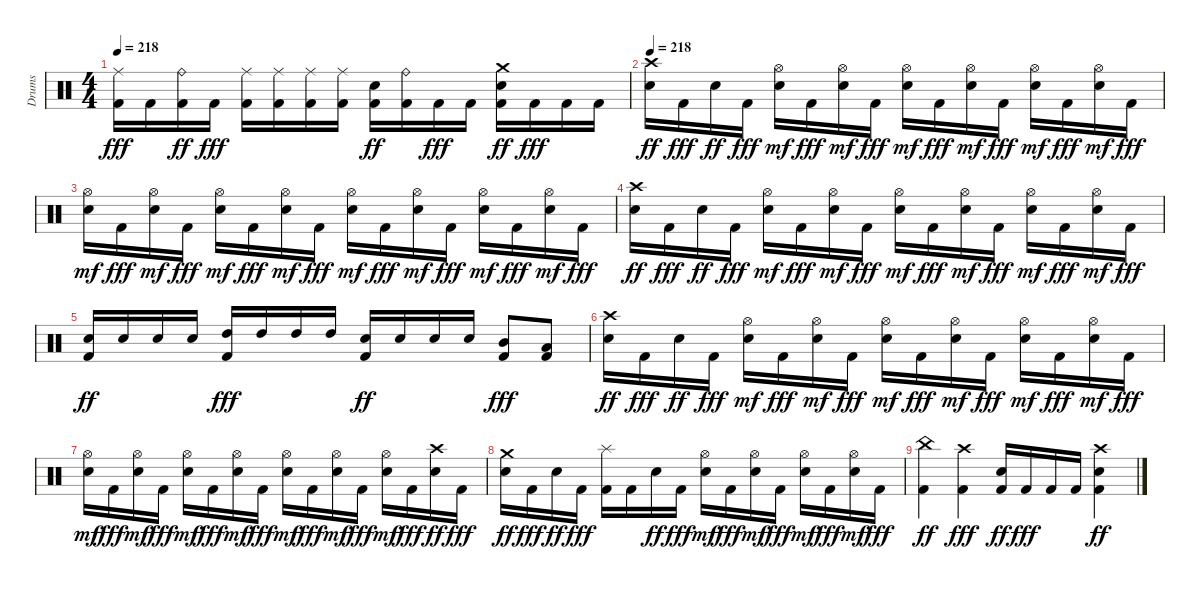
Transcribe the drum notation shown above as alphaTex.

\track ("Drums" "Drums") {instrument percussion}
\staff {score}
\articulation defaults
\ts (4 4)
\tempo 218
\clef neutral
\ks c
("Kick (hit) 2" "Ride (middle)").16{dy fff} "Kick (hit) 2".16 ("Kick (hit) 2" "Ride (bell)").16{dy ff} "Kick (hit) 2".16{dy fff} ("Kick (hit) 2" "Ride (middle)").16 ("Kick (hit) 2" "Ride (middle)").16 ("Kick (hit) 2" "Ride (middle)").16 ("Kick (hit) 2" "Ride (middle)").16 ("Kick (hit) 2" "Snare (hit) 2").16{dy ff} ("Kick (hit) 2" "Ride (bell)").16 "Kick (hit) 2".16{dy fff} "Kick (hit) 2".16 ("Kick (hit) 2" "Snare (hit) 2" "Crash medium (hit)").16{dy ff} "Kick (hit) 2".16{dy fff} "Kick (hit) 2".16 "Kick (hit) 2".16 |
\tempo 218
("Snare (hit) 2" "Crash high (hit)").16{dy ff} "Kick (hit) 2".16{dy fff} "Snare (hit) 2".16{dy ff} "Kick (hit) 2".16{dy fff} ("Snare (hit) 2" "Hi-Hat (open)").16{dy mf} "Kick (hit) 2".16{dy fff} ("Snare (hit) 2" "Hi-Hat (open)").16{dy mf} "Kick (hit) 2".16{dy fff} ("Snare (hit) 2" "Hi-Hat (open)").16{dy mf} "Kick (hit) 2".16{dy fff} ("Snare (hit) 2" "Hi-Hat (open)").16{dy mf} "Kick (hit) 2".16{dy fff} ("Snare (hit) 2" "Hi-Hat (open)").16{dy mf} "Kick (hit) 2".16{dy fff} ("Snare (hit) 2" "Hi-Hat (open)").16{dy mf} "Kick (hit) 2".16{dy fff} |
("Snare (hit) 2" "Hi-Hat (open)").16{dy mf} "Kick (hit) 2".16{dy fff} ("Snare (hit) 2" "Hi-Hat (open)").16{dy mf} "Kick (hit) 2".16{dy fff} ("Snare (hit) 2" "Hi-Hat (open)").16{dy mf} "Kick (hit) 2".16{dy fff} ("Snare (hit) 2" "Hi-Hat (open)").16{dy mf} "Kick (hit) 2".16{dy fff} ("Snare (hit) 2" "Hi-Hat (open)").16{dy mf} "Kick (hit) 2".16{dy fff} ("Snare (hit) 2" "Hi-Hat (open)").16{dy mf} "Kick (hit) 2".16{dy fff} ("Snare (hit) 2" "Hi-Hat (open)").16{dy mf} "Kick (hit) 2".16{dy fff} ("Snare (hit) 2" "Hi-Hat (open)").16{dy mf} "Kick (hit) 2".16{dy fff} |
("Snare (hit) 2" "Crash high (hit)").16{dy ff} "Kick (hit) 2".16{dy fff} "Snare (hit) 2".16{dy ff} "Kick (hit) 2".16{dy fff} ("Snare (hit) 2" "Hi-Hat (open)").16{dy mf} "Kick (hit) 2".16{dy fff} ("Snare (hit) 2" "Hi-Hat (open)").16{dy mf} "Kick (hit) 2".16{dy fff} ("Snare (hit) 2" "Hi-Hat (open)").16{dy mf} "Kick (hit) 2".16{dy fff} ("Snare (hit) 2" "Hi-Hat (open)").16{dy mf} "Kick (hit) 2".16{dy fff} ("Snare (hit) 2" "Hi-Hat (open)").16{dy mf} "Kick (hit) 2".16{dy fff} ("Snare (hit) 2" "Hi-Hat (open)").16{dy mf} "Kick (hit) 2".16{dy fff} |
("Kick (hit) 2" "Snare (hit) 2").16{dy ff} "Snare (hit) 2".16 "Snare (hit) 2".16 "Snare (hit) 2".16 ("Kick (hit) 2" "High Tom (hit)").16{dy fff} "High Tom (hit)".16 "High Tom (hit)".16 "High Tom (hit)".16 ("Kick (hit) 2" "Snare (hit) 2").16{dy ff} "Snare (hit) 2".16 "Snare (hit) 2".16 "Snare (hit) 2".16 ("Kick (hit) 2" "Mid Tom (hit)").8{dy fff} ("Kick (hit) 2" "Low Tom (hit)").8 |
("Snare (hit) 2" "Crash high (hit)").16{dy ff} "Kick (hit) 2".16{dy fff} "Snare (hit) 2".16{dy ff} "Kick (hit) 2".16{dy fff} ("Snare (hit) 2" "Hi-Hat (open)").16{dy mf} "Kick (hit) 2".16{dy fff} ("Snare (hit) 2" "Hi-Hat (open)").16{dy mf} "Kick (hit) 2".16{dy fff} ("Snare (hit) 2" "Hi-Hat (open)").16{dy mf} "Kick (hit) 2".16{dy fff} ("Snare (hit) 2" "Hi-Hat (open)").16{dy mf} "Kick (hit) 2".16{dy fff} ("Snare (hit) 2" "Hi-Hat (open)").16{dy mf} "Kick (hit) 2".16{dy fff} ("Snare (hit) 2" "Hi-Hat (open)").16{dy mf} "Kick (hit) 2".16{dy fff} |
("Snare (hit) 2" "Hi-Hat (open)").16{dy mf} "Kick (hit) 2".16{dy fff} ("Snare (hit) 2" "Hi-Hat (open)").16{dy mf} "Kick (hit) 2".16{dy fff} ("Snare (hit) 2" "Hi-Hat (open)").16{dy mf} "Kick (hit) 2".16{dy fff} ("Snare (hit) 2" "Hi-Hat (open)").16{dy mf} "Kick (hit) 2".16{dy fff} ("Snare (hit) 2" "Hi-Hat (open)").16{dy mf} "Kick (hit) 2".16{dy fff} ("Snare (hit) 2" "Hi-Hat (open)").16{dy mf} "Kick (hit) 2".16{dy fff} ("Snare (hit) 2" "Hi-Hat (open)").16{dy mf} "Kick (hit) 2".16{dy fff} ("Snare (hit) 2" "Crash high (hit)").16{dy ff} "Kick (hit) 2".16{dy fff} |
("Snare (hit) 2" "Crash medium (hit)").16{dy ff} "Kick (hit) 2".16{dy fff} "Snare (hit) 2".16{dy ff} "Kick (hit) 2".16{dy fff} ("Kick (hit) 2" "Splash (hit)").16 "Kick (hit) 2".16 "Snare (hit) 2".16{dy ff} "Kick (hit) 2".16{dy fff} ("Snare (hit) 2" "Hi-Hat (open)").16{dy mf} "Kick (hit) 2".16{dy fff} ("Snare (hit) 2" "Hi-Hat (open)").16{dy mf} "Kick (hit) 2".16{dy fff} ("Snare (hit) 2" "Hi-Hat (open)").16{dy mf} "Kick (hit) 2".16{dy fff} ("Snare (hit) 2" "Hi-Hat (open)").16{dy mf} "Kick (hit) 2".16{dy fff} |
("Kick (hit) 2" "China (hit)").4{dy ff} ("Kick (hit) 2" "Crash high (hit)").4{dy fff} ("Kick (hit) 2" "Snare (hit) 2").16{dy ff} "Kick (hit) 2".16{dy fff} "Kick (hit) 2".16 "Kick (hit) 2".16 ("Kick (hit) 2" "Snare (hit) 2" "Crash high (hit)").4{dy ff}
